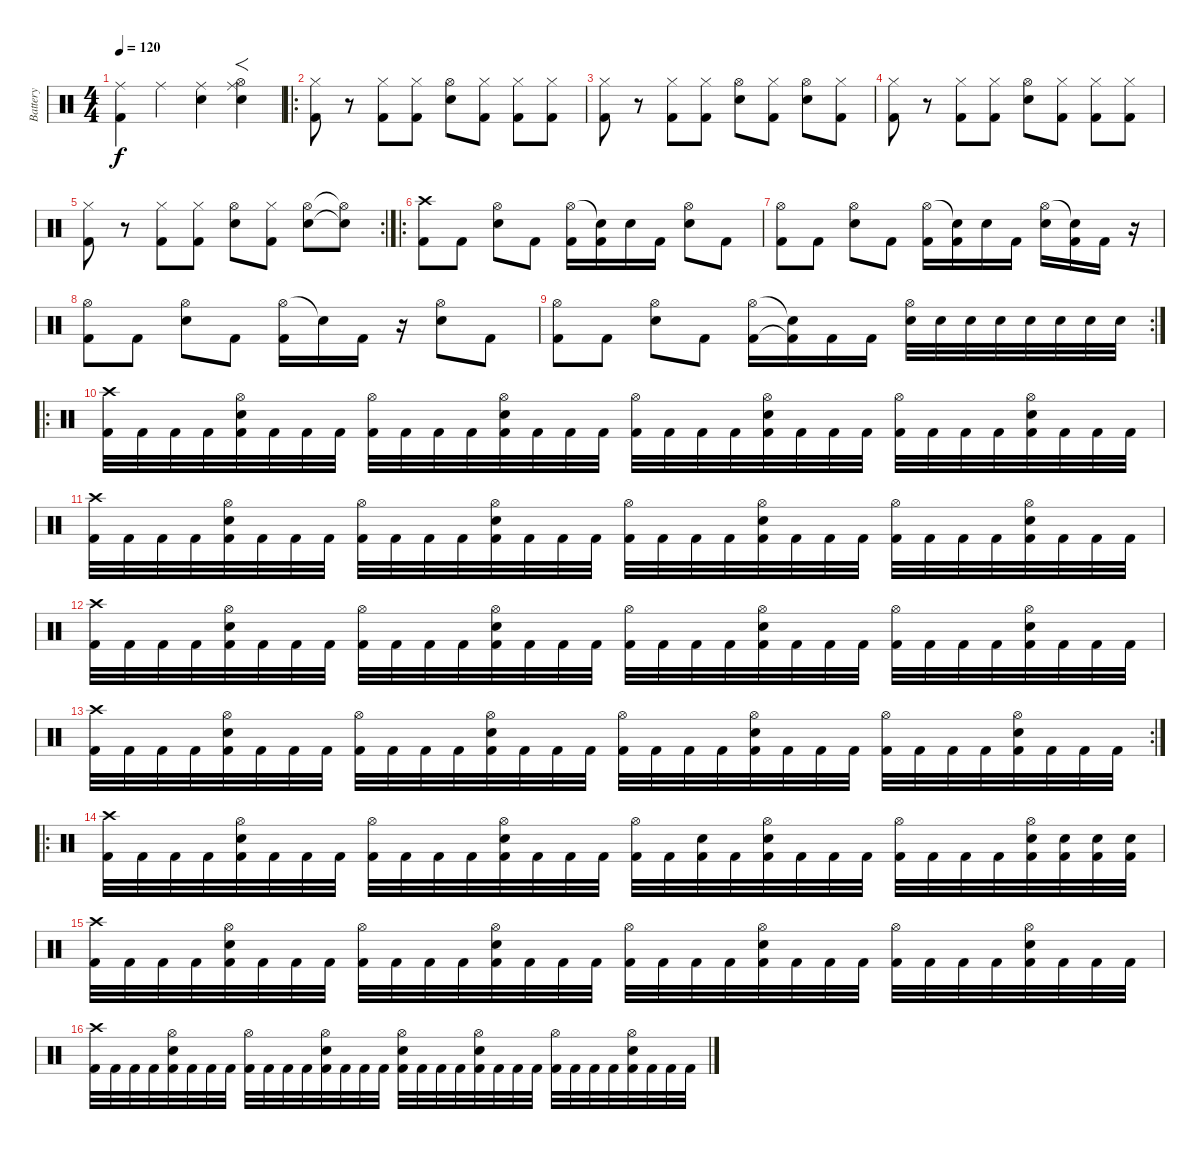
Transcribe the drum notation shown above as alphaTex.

\track ("Battery" "Battery") {instrument percussion}
\staff {score}
\articulation defaults
\ts (4 4)
\tempo 120
\clef neutral
\ks c
("Ride (middle)" "Kick (hit) 2").4{dy f} "Ride (middle)".4 ("Ride (middle)" "Electric Snare (hit)").4 ("Hi-Hat (open)" "Ride (middle)" "Electric Snare (hit)").4{f volume 16} |
\ro
("Hi-Hat (closed)" "Kick (hit) 2").8{volume 8} r.8 ("Hi-Hat (closed)" "Kick (hit) 2").8 ("Hi-Hat (closed)" "Kick (hit) 2").8 ("Hi-Hat (open)" "Electric Snare (hit)").8 ("Hi-Hat (closed)" "Kick (hit) 2").8 ("Hi-Hat (closed)" "Kick (hit) 2").8 ("Hi-Hat (closed)" "Kick (hit) 2").8 |
("Hi-Hat (closed)" "Kick (hit) 2").8 r.8 ("Hi-Hat (closed)" "Kick (hit) 2").8 ("Hi-Hat (closed)" "Kick (hit) 2").8 ("Hi-Hat (open)" "Electric Snare (hit)").8 ("Hi-Hat (closed)" "Kick (hit) 2").8 ("Hi-Hat (open)" "Electric Snare (hit)").8 ("Hi-Hat (closed)" "Kick (hit) 2").8 |
("Hi-Hat (closed)" "Kick (hit) 2").8 r.8 ("Hi-Hat (closed)" "Kick (hit) 2").8 ("Hi-Hat (closed)" "Kick (hit) 2").8 ("Hi-Hat (open)" "Electric Snare (hit)").8 ("Hi-Hat (closed)" "Kick (hit) 2").8 ("Hi-Hat (closed)" "Kick (hit) 2").8 ("Hi-Hat (closed)" "Kick (hit) 2").8 |
\rc 2
("Hi-Hat (closed)" "Kick (hit) 2").8 r.8 ("Hi-Hat (closed)" "Kick (hit) 2").8 ("Hi-Hat (closed)" "Kick (hit) 2").8 ("Hi-Hat (open)" "Electric Snare (hit)").8 ("Hi-Hat (closed)" "Kick (hit) 2").8 ("Hi-Hat (open)" "Electric Snare (hit)").8 ("Hi-Hat (open)"{t} "Electric Snare (hit)"{t}).8 |
\ro
("Crash high (hit)" "Kick (hit) 2").8{volume 11} "Kick (hit) 2".8 ("Hi-Hat (open)" "Electric Snare (hit)").8 "Kick (hit) 2".8 ("Hi-Hat (open)" "Kick (hit) 2").16 ("Snare (hit)"{t} "Kick (hit) 2").16 "Electric Snare (hit)".16 "Kick (hit) 2".16 ("Hi-Hat (open)" "Electric Snare (hit)").8 "Kick (hit) 2".8 |
("Hi-Hat (open)" "Kick (hit) 2").8{volume 11} "Kick (hit) 2".8 ("Hi-Hat (open)" "Electric Snare (hit)").8 "Kick (hit) 2".8 ("Hi-Hat (open)" "Kick (hit) 2").16 ("Snare (hit)"{t} "Kick (hit) 2").16 "Electric Snare (hit)".16 "Kick (hit) 2".16 ("Hi-Hat (open)" "Electric Snare (hit)").16 ("Snare (hit)"{t} "Kick (hit) 2").16 "Kick (hit) 2".16 r.16 |
("Hi-Hat (open)" "Kick (hit) 2").8{volume 11} "Kick (hit) 2".8 ("Hi-Hat (open)" "Electric Snare (hit)").8 "Kick (hit) 2".8 ("Hi-Hat (open)" "Kick (hit) 2").16 "Snare (hit)"{t}.16 "Kick (hit) 2".16 r.16 ("Hi-Hat (open)" "Electric Snare (hit)").8 "Kick (hit) 2".8 |
\rc 2
("Hi-Hat (open)" "Kick (hit) 2").8{volume 11} "Kick (hit) 2".8 ("Hi-Hat (open)" "Electric Snare (hit)").8 "Kick (hit) 2".8 ("Hi-Hat (open)" "Kick (hit) 2").16 ("Snare (hit)"{t} "Kick (hit) 2"{t}).16 "Kick (hit) 2".16 "Kick (hit) 2".16 ("Hi-Hat (open)" "Electric Snare (hit)").32 "Electric Snare (hit)".32 "Electric Snare (hit)".32 "Electric Snare (hit)".32 "Electric Snare (hit)".32 "Electric Snare (hit)".32 "Electric Snare (hit)".32 "Electric Snare (hit)".32 |
\ro
("Crash high (hit)" "Kick (hit) 2").32 "Kick (hit) 2".32 "Kick (hit) 2".32 "Kick (hit) 2".32 ("Hi-Hat (open)" "Electric Snare (hit)" "Kick (hit) 2").32 "Kick (hit) 2".32 "Kick (hit) 2".32 "Kick (hit) 2".32 ("Hi-Hat (open)" "Kick (hit) 2").32 "Kick (hit) 2".32 "Kick (hit) 2".32 "Kick (hit) 2".32 ("Hi-Hat (open)" "Electric Snare (hit)" "Kick (hit) 2").32 "Kick (hit) 2".32 "Kick (hit) 2".32 "Kick (hit) 2".32 ("Hi-Hat (open)" "Kick (hit) 2").32 "Kick (hit) 2".32 "Kick (hit) 2".32 "Kick (hit) 2".32 ("Hi-Hat (open)" "Electric Snare (hit)" "Kick (hit) 2").32 "Kick (hit) 2".32 "Kick (hit) 2".32 "Kick (hit) 2".32 ("Hi-Hat (open)" "Kick (hit) 2").32 "Kick (hit) 2".32 "Kick (hit) 2".32 "Kick (hit) 2".32 ("Hi-Hat (open)" "Electric Snare (hit)" "Kick (hit) 2").32 "Kick (hit) 2".32 "Kick (hit) 2".32 "Kick (hit) 2".32 |
("Crash high (hit)" "Kick (hit) 2").32 "Kick (hit) 2".32 "Kick (hit) 2".32 "Kick (hit) 2".32 ("Hi-Hat (open)" "Electric Snare (hit)" "Kick (hit) 2").32 "Kick (hit) 2".32 "Kick (hit) 2".32 "Kick (hit) 2".32 ("Hi-Hat (open)" "Kick (hit) 2").32 "Kick (hit) 2".32 "Kick (hit) 2".32 "Kick (hit) 2".32 ("Hi-Hat (open)" "Electric Snare (hit)" "Kick (hit) 2").32 "Kick (hit) 2".32 "Kick (hit) 2".32 "Kick (hit) 2".32 ("Hi-Hat (open)" "Kick (hit) 2").32 "Kick (hit) 2".32 "Kick (hit) 2".32 "Kick (hit) 2".32 ("Hi-Hat (open)" "Electric Snare (hit)" "Kick (hit) 2").32 "Kick (hit) 2".32 "Kick (hit) 2".32 "Kick (hit) 2".32 ("Hi-Hat (open)" "Kick (hit) 2").32 "Kick (hit) 2".32 "Kick (hit) 2".32 "Kick (hit) 2".32 ("Hi-Hat (open)" "Electric Snare (hit)" "Kick (hit) 2").32 "Kick (hit) 2".32 "Kick (hit) 2".32 "Kick (hit) 2".32 |
("Crash high (hit)" "Kick (hit) 2").32 "Kick (hit) 2".32 "Kick (hit) 2".32 "Kick (hit) 2".32 ("Hi-Hat (open)" "Electric Snare (hit)" "Kick (hit) 2").32 "Kick (hit) 2".32 "Kick (hit) 2".32 "Kick (hit) 2".32 ("Hi-Hat (open)" "Kick (hit) 2").32 "Kick (hit) 2".32 "Kick (hit) 2".32 "Kick (hit) 2".32 ("Hi-Hat (open)" "Electric Snare (hit)" "Kick (hit) 2").32 "Kick (hit) 2".32 "Kick (hit) 2".32 "Kick (hit) 2".32 ("Hi-Hat (open)" "Kick (hit) 2").32 "Kick (hit) 2".32 "Kick (hit) 2".32 "Kick (hit) 2".32 ("Hi-Hat (open)" "Electric Snare (hit)" "Kick (hit) 2").32 "Kick (hit) 2".32 "Kick (hit) 2".32 "Kick (hit) 2".32 ("Hi-Hat (open)" "Kick (hit) 2").32 "Kick (hit) 2".32 "Kick (hit) 2".32 "Kick (hit) 2".32 ("Hi-Hat (open)" "Electric Snare (hit)" "Kick (hit) 2").32 "Kick (hit) 2".32 "Kick (hit) 2".32 "Kick (hit) 2".32 |
\rc 2
("Crash high (hit)" "Kick (hit) 2").32 "Kick (hit) 2".32 "Kick (hit) 2".32 "Kick (hit) 2".32 ("Hi-Hat (open)" "Electric Snare (hit)" "Kick (hit) 2").32 "Kick (hit) 2".32 "Kick (hit) 2".32 "Kick (hit) 2".32 ("Hi-Hat (open)" "Kick (hit) 2").32 "Kick (hit) 2".32 "Kick (hit) 2".32 "Kick (hit) 2".32 ("Hi-Hat (open)" "Electric Snare (hit)" "Kick (hit) 2").32 "Kick (hit) 2".32 "Kick (hit) 2".32 "Kick (hit) 2".32 ("Hi-Hat (open)" "Kick (hit) 2").32 "Kick (hit) 2".32 "Kick (hit) 2".32 "Kick (hit) 2".32 ("Hi-Hat (open)" "Electric Snare (hit)" "Kick (hit) 2").32 "Kick (hit) 2".32 "Kick (hit) 2".32 "Kick (hit) 2".32 ("Hi-Hat (open)" "Kick (hit) 2").32 "Kick (hit) 2".32 "Kick (hit) 2".32 "Kick (hit) 2".32 ("Hi-Hat (open)" "Electric Snare (hit)" "Kick (hit) 2").32 "Kick (hit) 2".32 "Kick (hit) 2".32 "Kick (hit) 2".32 |
\ro
("Crash high (hit)" "Kick (hit) 2").32 "Kick (hit) 2".32 "Kick (hit) 2".32 "Kick (hit) 2".32 ("Hi-Hat (open)" "Electric Snare (hit)" "Kick (hit) 2").32 "Kick (hit) 2".32 "Kick (hit) 2".32 "Kick (hit) 2".32 ("Hi-Hat (open)" "Kick (hit) 2").32 "Kick (hit) 2".32 "Kick (hit) 2".32 "Kick (hit) 2".32 ("Hi-Hat (open)" "Electric Snare (hit)" "Kick (hit) 2").32 "Kick (hit) 2".32 "Kick (hit) 2".32 "Kick (hit) 2".32 ("Hi-Hat (open)" "Kick (hit) 2").32 "Kick (hit) 2".32 ("Electric Snare (hit)" "Kick (hit) 2").32 "Kick (hit) 2".32 ("Hi-Hat (open)" "Electric Snare (hit)" "Kick (hit) 2").32 "Kick (hit) 2".32 "Kick (hit) 2".32 "Kick (hit) 2".32 ("Hi-Hat (open)" "Kick (hit) 2").32 "Kick (hit) 2".32 "Kick (hit) 2".32 "Kick (hit) 2".32 ("Hi-Hat (open)" "Electric Snare (hit)" "Kick (hit) 2").32 ("Electric Snare (hit)" "Kick (hit) 2").32 ("Electric Snare (hit)" "Kick (hit) 2").32 ("Electric Snare (hit)" "Kick (hit) 2").32 |
("Crash high (hit)" "Kick (hit) 2").32 "Kick (hit) 2".32 "Kick (hit) 2".32 "Kick (hit) 2".32 ("Hi-Hat (open)" "Electric Snare (hit)" "Kick (hit) 2").32 "Kick (hit) 2".32 "Kick (hit) 2".32 "Kick (hit) 2".32 ("Hi-Hat (open)" "Kick (hit) 2").32 "Kick (hit) 2".32 "Kick (hit) 2".32 "Kick (hit) 2".32 ("Hi-Hat (open)" "Electric Snare (hit)" "Kick (hit) 2").32 "Kick (hit) 2".32 "Kick (hit) 2".32 "Kick (hit) 2".32 ("Hi-Hat (open)" "Kick (hit) 2").32 "Kick (hit) 2".32 "Kick (hit) 2".32 "Kick (hit) 2".32 ("Hi-Hat (open)" "Electric Snare (hit)" "Kick (hit) 2").32 "Kick (hit) 2".32 "Kick (hit) 2".32 "Kick (hit) 2".32 ("Hi-Hat (open)" "Kick (hit) 2").32 "Kick (hit) 2".32 "Kick (hit) 2".32 "Kick (hit) 2".32 ("Hi-Hat (open)" "Electric Snare (hit)" "Kick (hit) 2").32 "Kick (hit) 2".32 "Kick (hit) 2".32 "Kick (hit) 2".32 |
("Crash high (hit)" "Kick (hit) 2").32 "Kick (hit) 2".32 "Kick (hit) 2".32 "Kick (hit) 2".32 ("Hi-Hat (open)" "Electric Snare (hit)" "Kick (hit) 2").32 "Kick (hit) 2".32 "Kick (hit) 2".32 "Kick (hit) 2".32 ("Hi-Hat (open)" "Kick (hit) 2").32 "Kick (hit) 2".32 "Kick (hit) 2".32 "Kick (hit) 2".32 ("Hi-Hat (open)" "Electric Snare (hit)" "Kick (hit) 2").32 "Kick (hit) 2".32 "Kick (hit) 2".32 "Kick (hit) 2".32 ("Hi-Hat (open)" "Electric Snare (hit)" "Kick (hit) 2").32 "Kick (hit) 2".32 "Kick (hit) 2".32 "Kick (hit) 2".32 ("Hi-Hat (open)" "Electric Snare (hit)" "Kick (hit) 2").32 "Kick (hit) 2".32 "Kick (hit) 2".32 "Kick (hit) 2".32 ("Hi-Hat (open)" "Kick (hit) 2").32 "Kick (hit) 2".32 "Kick (hit) 2".32 "Kick (hit) 2".32 ("Hi-Hat (open)" "Electric Snare (hit)" "Kick (hit) 2").32 "Kick (hit) 2".32 "Kick (hit) 2".32 "Kick (hit) 2".32
